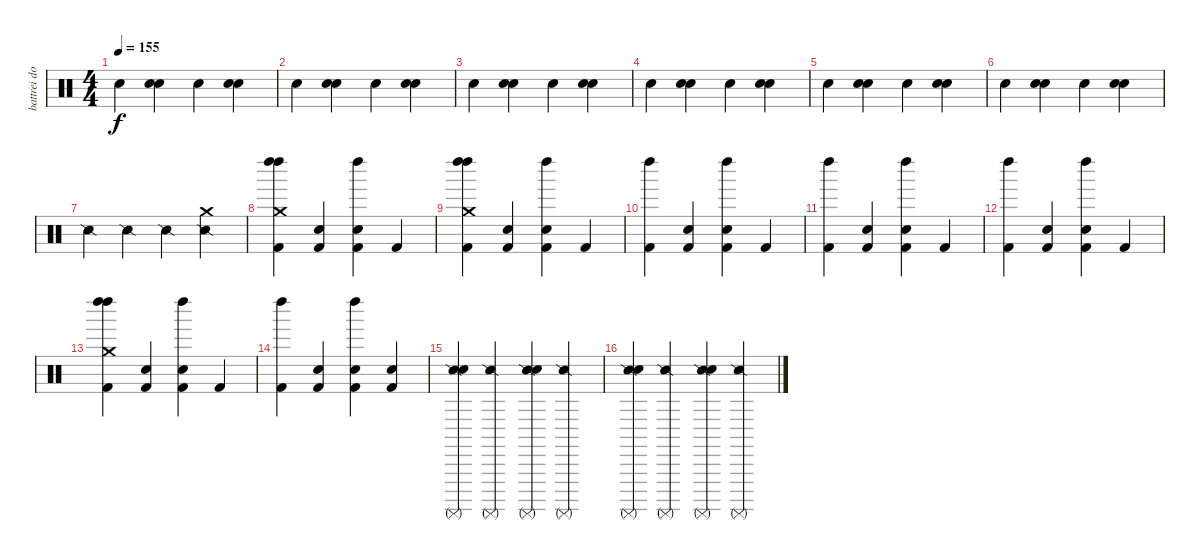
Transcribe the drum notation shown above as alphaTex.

\track ("battrei dom" "battrei do") {instrument percussion}
\staff {score}
\articulation defaults
\ts (4 4)
\tempo 155
\clef neutral
\ks c "Snare (hit) 2".4{dy f}
("Snare (hit) 2" "Snare (hit) 2").4 "Snare (hit) 2".4 ("Snare (hit) 2" "Snare (hit) 2").4 |
"Snare (hit) 2".4 ("Snare (hit) 2" "Snare (hit) 2").4 "Snare (hit) 2".4 ("Snare (hit) 2" "Snare (hit) 2").4 |
"Snare (hit) 2".4 ("Snare (hit) 2" "Snare (hit) 2").4 "Snare (hit) 2".4 ("Snare (hit) 2" "Snare (hit) 2").4 |
"Snare (hit) 2".4 ("Snare (hit) 2" "Snare (hit) 2").4 "Snare (hit) 2".4 ("Snare (hit) 2" "Snare (hit) 2").4 |
"Snare (hit) 2".4 ("Snare (hit) 2" "Snare (hit) 2").4 "Snare (hit) 2".4 ("Snare (hit) 2" "Snare (hit) 2").4 |
"Snare (hit) 2".4 ("Snare (hit) 2" "Snare (hit) 2").4 "Snare (hit) 2".4 ("Snare (hit) 2" "Snare (hit) 2").4 |
"Snare (side stick) 2".4 "Snare (side stick) 2".4 "Snare (side stick) 2".4 ("Snare (side stick) 2" "Crash medium (hit)").4 |
("Kick (hit) 2" "Crash medium (hit)" "Left Maraca (hit)" "Left Maraca (hit)").4 ("Kick (hit) 2" "Snare (hit) 2").4 ("Kick (hit) 2" "Snare (hit) 2" "Left Maraca (hit)").4 "Kick (hit) 2".4 |
("Kick (hit) 2" "Crash medium (hit)" "Left Maraca (hit)" "Left Maraca (hit)").4 ("Kick (hit) 2" "Snare (hit) 2").4 ("Kick (hit) 2" "Snare (hit) 2" "Left Maraca (hit)").4 "Kick (hit) 2".4 |
("Kick (hit) 2" "Left Maraca (hit)").4 ("Kick (hit) 2" "Snare (hit) 2").4 ("Kick (hit) 2" "Snare (hit) 2" "Left Maraca (hit)").4 "Kick (hit) 2".4 |
("Kick (hit) 2" "Left Maraca (hit)").4 ("Kick (hit) 2" "Snare (hit) 2").4 ("Kick (hit) 2" "Snare (hit) 2" "Left Maraca (hit)").4 "Kick (hit) 2".4 |
("Kick (hit) 2" "Left Maraca (hit)").4 ("Kick (hit) 2" "Snare (hit) 2").4 ("Kick (hit) 2" "Snare (hit) 2" "Left Maraca (hit)").4 "Kick (hit) 2".4 |
("Kick (hit) 2" "Crash medium (hit)" "Left Maraca (hit)" "Left Maraca (hit)").4 ("Kick (hit) 2" "Snare (hit) 2").4 ("Kick (hit) 2" "Snare (hit) 2" "Left Maraca (hit)").4 "Kick (hit) 2".4 |
("Kick (hit) 2" "Left Maraca (hit)").4 ("Kick (hit) 2" "Snare (hit) 2").4 ("Kick (hit) 2" "Snare (hit) 2" "Left Maraca (hit)").4 ("Kick (hit) 2" "Snare (hit) 2").4 |
("Snare (side stick) 2" "Snare (hit) 2" "Surdo (mute)").4 ("Snare (side stick) 2" "Surdo (mute)").4 ("Snare (side stick) 2" "Snare (hit) 2" "Surdo (mute)").4 ("Snare (side stick) 2" "Surdo (mute)").4 |
("Snare (side stick) 2" "Snare (hit) 2" "Surdo (mute)").4 ("Snare (side stick) 2" "Surdo (mute)").4 ("Snare (side stick) 2" "Snare (hit) 2" "Surdo (mute)").4 ("Snare (side stick) 2" "Surdo (mute)").4
